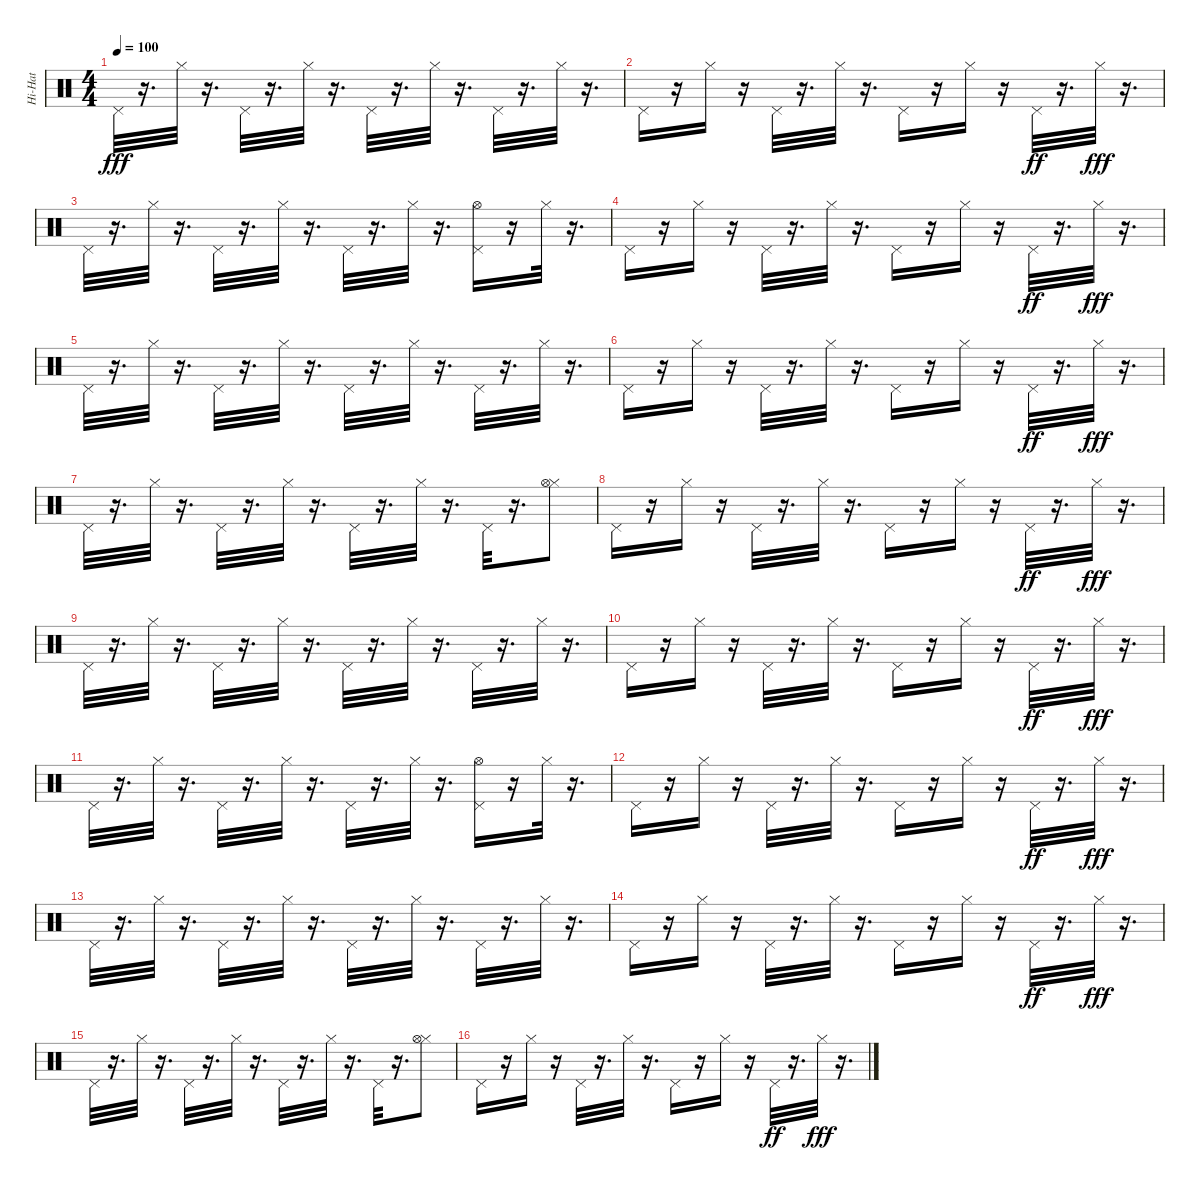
\track ("Hi-Hat" "Hi-Hat") {instrument percussion}
\staff {score}
\articulation defaults
\ts (4 4)
\tempo 100
\clef neutral
\ks c "Pedal Hi-Hat (hit)".32{dy fff}
r.16{d} "Hi-Hat (closed)".32 r.16{d} "Pedal Hi-Hat (hit)".32 r.16{d} "Hi-Hat (closed)".32 r.16{d} "Pedal Hi-Hat (hit)".32 r.16{d} "Hi-Hat (closed)".32 r.16{d} "Pedal Hi-Hat (hit)".32 r.16{d} "Hi-Hat (closed)".32 r.16{d} |
"Pedal Hi-Hat (hit)".16 r.16 "Hi-Hat (closed)".16 r.16 "Pedal Hi-Hat (hit)".32 r.16{d} "Hi-Hat (closed)".32 r.16{d} "Pedal Hi-Hat (hit)".16 r.16 "Hi-Hat (closed)".16 r.16 "Pedal Hi-Hat (hit)".32{dy ff} r.16{d} "Hi-Hat (closed)".32{dy fff} r.16{d} |
"Pedal Hi-Hat (hit)".32 r.16{d} "Hi-Hat (closed)".32 r.16{d} "Pedal Hi-Hat (hit)".32 r.16{d} "Hi-Hat (closed)".32 r.16{d} "Pedal Hi-Hat (hit)".32 r.16{d} "Hi-Hat (closed)".32 r.16{d} ("Pedal Hi-Hat (hit)" "Hi-Hat (open)").16 r.16 "Hi-Hat (closed)".32 r.16{d} |
"Pedal Hi-Hat (hit)".16 r.16 "Hi-Hat (closed)".16 r.16 "Pedal Hi-Hat (hit)".32 r.16{d} "Hi-Hat (closed)".32 r.16{d} "Pedal Hi-Hat (hit)".16 r.16 "Hi-Hat (closed)".16 r.16 "Pedal Hi-Hat (hit)".32{dy ff} r.16{d} "Hi-Hat (closed)".32{dy fff} r.16{d} |
"Pedal Hi-Hat (hit)".32 r.16{d} "Hi-Hat (closed)".32 r.16{d} "Pedal Hi-Hat (hit)".32 r.16{d} "Hi-Hat (closed)".32 r.16{d} "Pedal Hi-Hat (hit)".32 r.16{d} "Hi-Hat (closed)".32 r.16{d} "Pedal Hi-Hat (hit)".32 r.16{d} "Hi-Hat (closed)".32 r.16{d} |
"Pedal Hi-Hat (hit)".16 r.16 "Hi-Hat (closed)".16 r.16 "Pedal Hi-Hat (hit)".32 r.16{d} "Hi-Hat (closed)".32 r.16{d} "Pedal Hi-Hat (hit)".16 r.16 "Hi-Hat (closed)".16 r.16 "Pedal Hi-Hat (hit)".32{dy ff} r.16{d} "Hi-Hat (closed)".32{dy fff} r.16{d} |
"Pedal Hi-Hat (hit)".32 r.16{d} "Hi-Hat (closed)".32 r.16{d} "Pedal Hi-Hat (hit)".32 r.16{d} "Hi-Hat (closed)".32 r.16{d} "Pedal Hi-Hat (hit)".32 r.16{d} "Hi-Hat (closed)".32 r.16{d} "Pedal Hi-Hat (hit)".32 r.16{d} ("Hi-Hat (closed)" "Hi-Hat (open)").8 |
"Pedal Hi-Hat (hit)".16 r.16 "Hi-Hat (closed)".16 r.16 "Pedal Hi-Hat (hit)".32 r.16{d} "Hi-Hat (closed)".32 r.16{d} "Pedal Hi-Hat (hit)".16 r.16 "Hi-Hat (closed)".16 r.16 "Pedal Hi-Hat (hit)".32{dy ff} r.16{d} "Hi-Hat (closed)".32{dy fff} r.16{d} |
"Pedal Hi-Hat (hit)".32 r.16{d} "Hi-Hat (closed)".32 r.16{d} "Pedal Hi-Hat (hit)".32 r.16{d} "Hi-Hat (closed)".32 r.16{d} "Pedal Hi-Hat (hit)".32 r.16{d} "Hi-Hat (closed)".32 r.16{d} "Pedal Hi-Hat (hit)".32 r.16{d} "Hi-Hat (closed)".32 r.16{d} |
"Pedal Hi-Hat (hit)".16 r.16 "Hi-Hat (closed)".16 r.16 "Pedal Hi-Hat (hit)".32 r.16{d} "Hi-Hat (closed)".32 r.16{d} "Pedal Hi-Hat (hit)".16 r.16 "Hi-Hat (closed)".16 r.16 "Pedal Hi-Hat (hit)".32{dy ff} r.16{d} "Hi-Hat (closed)".32{dy fff} r.16{d} |
"Pedal Hi-Hat (hit)".32 r.16{d} "Hi-Hat (closed)".32 r.16{d} "Pedal Hi-Hat (hit)".32 r.16{d} "Hi-Hat (closed)".32 r.16{d} "Pedal Hi-Hat (hit)".32 r.16{d} "Hi-Hat (closed)".32 r.16{d} ("Pedal Hi-Hat (hit)" "Hi-Hat (open)").16 r.16 "Hi-Hat (closed)".32 r.16{d} |
"Pedal Hi-Hat (hit)".16 r.16 "Hi-Hat (closed)".16 r.16 "Pedal Hi-Hat (hit)".32 r.16{d} "Hi-Hat (closed)".32 r.16{d} "Pedal Hi-Hat (hit)".16 r.16 "Hi-Hat (closed)".16 r.16 "Pedal Hi-Hat (hit)".32{dy ff} r.16{d} "Hi-Hat (closed)".32{dy fff} r.16{d} |
"Pedal Hi-Hat (hit)".32 r.16{d} "Hi-Hat (closed)".32 r.16{d} "Pedal Hi-Hat (hit)".32 r.16{d} "Hi-Hat (closed)".32 r.16{d} "Pedal Hi-Hat (hit)".32 r.16{d} "Hi-Hat (closed)".32 r.16{d} "Pedal Hi-Hat (hit)".32 r.16{d} "Hi-Hat (closed)".32 r.16{d} |
"Pedal Hi-Hat (hit)".16 r.16 "Hi-Hat (closed)".16 r.16 "Pedal Hi-Hat (hit)".32 r.16{d} "Hi-Hat (closed)".32 r.16{d} "Pedal Hi-Hat (hit)".16 r.16 "Hi-Hat (closed)".16 r.16 "Pedal Hi-Hat (hit)".32{dy ff} r.16{d} "Hi-Hat (closed)".32{dy fff} r.16{d} |
"Pedal Hi-Hat (hit)".32 r.16{d} "Hi-Hat (closed)".32 r.16{d} "Pedal Hi-Hat (hit)".32 r.16{d} "Hi-Hat (closed)".32 r.16{d} "Pedal Hi-Hat (hit)".32 r.16{d} "Hi-Hat (closed)".32 r.16{d} "Pedal Hi-Hat (hit)".32 r.16{d} ("Hi-Hat (closed)" "Hi-Hat (open)").8 |
"Pedal Hi-Hat (hit)".16 r.16 "Hi-Hat (closed)".16 r.16 "Pedal Hi-Hat (hit)".32 r.16{d} "Hi-Hat (closed)".32 r.16{d} "Pedal Hi-Hat (hit)".16 r.16 "Hi-Hat (closed)".16 r.16 "Pedal Hi-Hat (hit)".32{dy ff} r.16{d} "Hi-Hat (closed)".32{dy fff} r.16{d}
